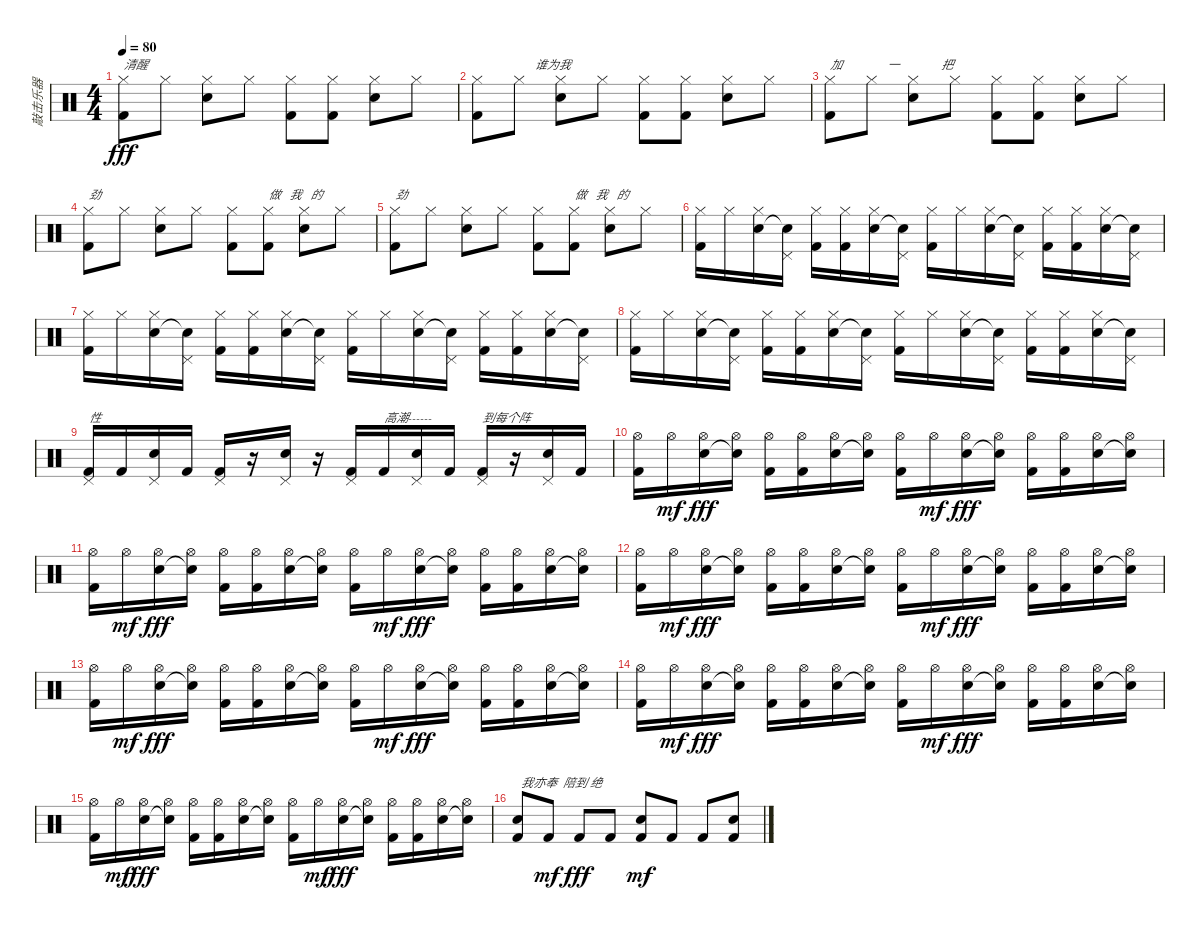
\track ("敲击乐器" "敲击乐器") {instrument percussion}
\staff {score}
\articulation defaults
\ts (4 4)
\tempo 80
\clef neutral
\ks c
("Hi-Hat (closed)" "Kick (hit) 2").8{txt "清醒" dy fff} "Hi-Hat (closed)".8 ("Hi-Hat (closed)" "Electric Snare (hit)").8 "Hi-Hat (closed)".8 ("Hi-Hat (closed)" "Kick (hit) 2").8 ("Hi-Hat (closed)" "Kick (hit) 2").8 ("Hi-Hat (closed)" "Electric Snare (hit)").8 "Hi-Hat (closed)".8 |
("Hi-Hat (closed)" "Kick (hit) 2").8{txt "                   谁为我"} "Hi-Hat (closed)".8 ("Hi-Hat (closed)" "Electric Snare (hit)").8 "Hi-Hat (closed)".8 ("Hi-Hat (closed)" "Kick (hit) 2").8 ("Hi-Hat (closed)" "Kick (hit) 2").8 ("Hi-Hat (closed)" "Electric Snare (hit)").8 "Hi-Hat (closed)".8 |
("Hi-Hat (closed)" "Kick (hit) 2").8{txt "加               一              把    "} "Hi-Hat (closed)".8 ("Hi-Hat (closed)" "Electric Snare (hit)").8 "Hi-Hat (closed)".8 ("Hi-Hat (closed)" "Kick (hit) 2").8 ("Hi-Hat (closed)" "Kick (hit) 2").8 ("Hi-Hat (closed)" "Electric Snare (hit)").8 "Hi-Hat (closed)".8 |
("Hi-Hat (closed)" "Kick (hit) 2").8{txt "劲"} "Hi-Hat (closed)".8 ("Hi-Hat (closed)" "Electric Snare (hit)").8 "Hi-Hat (closed)".8 ("Hi-Hat (closed)" "Kick (hit) 2").8 ("Hi-Hat (closed)" "Kick (hit) 2").8{txt "做   我   的 "} ("Hi-Hat (closed)" "Electric Snare (hit)").8 "Hi-Hat (closed)".8 |
("Hi-Hat (closed)" "Kick (hit) 2").8{txt "劲"} "Hi-Hat (closed)".8 ("Hi-Hat (closed)" "Electric Snare (hit)").8 "Hi-Hat (closed)".8 ("Hi-Hat (closed)" "Kick (hit) 2").8 ("Hi-Hat (closed)" "Kick (hit) 2").8{txt "做   我   的 "} ("Hi-Hat (closed)" "Electric Snare (hit)").8 "Hi-Hat (closed)".8 |
("Hi-Hat (closed)" "Kick (hit) 2").16 "Hi-Hat (closed)".16 ("Hi-Hat (closed)" "Electric Snare (hit)").16 ("Pedal Hi-Hat (hit)" "Snare (hit)"{t}).16 ("Hi-Hat (closed)" "Kick (hit) 2").16 ("Hi-Hat (closed)" "Kick (hit) 2").16 ("Hi-Hat (closed)" "Electric Snare (hit)").16 ("Pedal Hi-Hat (hit)" "Snare (hit)"{t}).16 ("Hi-Hat (closed)" "Kick (hit) 2").16 "Hi-Hat (closed)".16 ("Hi-Hat (closed)" "Electric Snare (hit)").16 ("Pedal Hi-Hat (hit)" "Snare (hit)"{t}).16 ("Hi-Hat (closed)" "Kick (hit) 2").16 ("Hi-Hat (closed)" "Kick (hit) 2").16 ("Hi-Hat (closed)" "Electric Snare (hit)").16 ("Pedal Hi-Hat (hit)" "Snare (hit)"{t}).16 |
("Hi-Hat (closed)" "Kick (hit) 2").16 "Hi-Hat (closed)".16 ("Hi-Hat (closed)" "Electric Snare (hit)").16 ("Pedal Hi-Hat (hit)" "Snare (hit)"{t}).16 ("Hi-Hat (closed)" "Kick (hit) 2").16 ("Hi-Hat (closed)" "Kick (hit) 2").16 ("Hi-Hat (closed)" "Electric Snare (hit)").16 ("Pedal Hi-Hat (hit)" "Snare (hit)"{t}).16 ("Hi-Hat (closed)" "Kick (hit) 2").16 "Hi-Hat (closed)".16 ("Hi-Hat (closed)" "Electric Snare (hit)").16 ("Pedal Hi-Hat (hit)" "Snare (hit)"{t}).16 ("Hi-Hat (closed)" "Kick (hit) 2").16 ("Hi-Hat (closed)" "Kick (hit) 2").16 ("Hi-Hat (closed)" "Electric Snare (hit)").16 ("Pedal Hi-Hat (hit)" "Snare (hit)"{t}).16 |
("Hi-Hat (closed)" "Kick (hit) 2").16 "Hi-Hat (closed)".16 ("Hi-Hat (closed)" "Electric Snare (hit)").16 ("Pedal Hi-Hat (hit)" "Snare (hit)"{t}).16 ("Hi-Hat (closed)" "Kick (hit) 2").16 ("Hi-Hat (closed)" "Kick (hit) 2").16 ("Hi-Hat (closed)" "Electric Snare (hit)").16 ("Pedal Hi-Hat (hit)" "Snare (hit)"{t}).16 ("Hi-Hat (closed)" "Kick (hit) 2").16 "Hi-Hat (closed)".16 ("Hi-Hat (closed)" "Electric Snare (hit)").16 ("Pedal Hi-Hat (hit)" "Snare (hit)"{t}).16 ("Hi-Hat (closed)" "Kick (hit) 2").16 ("Hi-Hat (closed)" "Kick (hit) 2").16 ("Hi-Hat (closed)" "Electric Snare (hit)").16 ("Pedal Hi-Hat (hit)" "Snare (hit)"{t}).16 |
("Pedal Hi-Hat (hit)" "Kick (hit) 2").16{txt "性"} "Kick (hit) 2".16 ("Pedal Hi-Hat (hit)" "Electric Snare (hit)").16 "Kick (hit) 2".16 ("Pedal Hi-Hat (hit)" "Kick (hit) 2").16 r.16 ("Pedal Hi-Hat (hit)" "Electric Snare (hit)").16 r.16 ("Pedal Hi-Hat (hit)" "Kick (hit) 2").16 "Kick (hit) 2".16{txt "高潮------"} ("Pedal Hi-Hat (hit)" "Electric Snare (hit)").16 "Kick (hit) 2".16 ("Pedal Hi-Hat (hit)" "Kick (hit) 2").16{txt "到每个阵"} r.16 ("Pedal Hi-Hat (hit)" "Electric Snare (hit)").16 "Kick (hit) 2".16 |
("Hi-Hat (open)" "Kick (hit) 2").16 "Hi-Hat (open)".16{dy mf} ("Hi-Hat (open)" "Electric Snare (hit)").16{dy fff} ("Hi-Hat (open)" "Snare (hit)"{t}).16 ("Hi-Hat (open)" "Kick (hit) 2").16 ("Hi-Hat (open)" "Kick (hit) 2").16 ("Hi-Hat (open)" "Electric Snare (hit)").16 ("Hi-Hat (open)" "Snare (hit)"{t}).16 ("Hi-Hat (open)" "Kick (hit) 2").16 "Hi-Hat (open)".16{dy mf} ("Hi-Hat (open)" "Electric Snare (hit)").16{dy fff} ("Hi-Hat (open)" "Snare (hit)"{t}).16 ("Hi-Hat (open)" "Kick (hit) 2").16 ("Hi-Hat (open)" "Kick (hit) 2").16 ("Hi-Hat (open)" "Electric Snare (hit)").16 ("Hi-Hat (open)" "Snare (hit)"{t}).16 |
("Hi-Hat (open)" "Kick (hit) 2").16 "Hi-Hat (open)".16{dy mf} ("Hi-Hat (open)" "Electric Snare (hit)").16{dy fff} ("Hi-Hat (open)" "Snare (hit)"{t}).16 ("Hi-Hat (open)" "Kick (hit) 2").16 ("Hi-Hat (open)" "Kick (hit) 2").16 ("Hi-Hat (open)" "Electric Snare (hit)").16 ("Hi-Hat (open)" "Snare (hit)"{t}).16 ("Hi-Hat (open)" "Kick (hit) 2").16 "Hi-Hat (open)".16{dy mf} ("Hi-Hat (open)" "Electric Snare (hit)").16{dy fff} ("Hi-Hat (open)" "Snare (hit)"{t}).16 ("Hi-Hat (open)" "Kick (hit) 2").16 ("Hi-Hat (open)" "Kick (hit) 2").16 ("Hi-Hat (open)" "Electric Snare (hit)").16 ("Hi-Hat (open)" "Snare (hit)"{t}).16 |
("Hi-Hat (open)" "Kick (hit) 2").16 "Hi-Hat (open)".16{dy mf} ("Hi-Hat (open)" "Electric Snare (hit)").16{dy fff} ("Hi-Hat (open)" "Snare (hit)"{t}).16 ("Hi-Hat (open)" "Kick (hit) 2").16 ("Hi-Hat (open)" "Kick (hit) 2").16 ("Hi-Hat (open)" "Electric Snare (hit)").16 ("Hi-Hat (open)" "Snare (hit)"{t}).16 ("Hi-Hat (open)" "Kick (hit) 2").16 "Hi-Hat (open)".16{dy mf} ("Hi-Hat (open)" "Electric Snare (hit)").16{dy fff} ("Hi-Hat (open)" "Snare (hit)"{t}).16 ("Hi-Hat (open)" "Kick (hit) 2").16 ("Hi-Hat (open)" "Kick (hit) 2").16 ("Hi-Hat (open)" "Electric Snare (hit)").16 ("Hi-Hat (open)" "Snare (hit)"{t}).16 |
("Hi-Hat (open)" "Kick (hit) 2").16 "Hi-Hat (open)".16{dy mf} ("Hi-Hat (open)" "Electric Snare (hit)").16{dy fff} ("Hi-Hat (open)" "Snare (hit)"{t}).16 ("Hi-Hat (open)" "Kick (hit) 2").16 ("Hi-Hat (open)" "Kick (hit) 2").16 ("Hi-Hat (open)" "Electric Snare (hit)").16 ("Hi-Hat (open)" "Snare (hit)"{t}).16 ("Hi-Hat (open)" "Kick (hit) 2").16 "Hi-Hat (open)".16{dy mf} ("Hi-Hat (open)" "Electric Snare (hit)").16{dy fff} ("Hi-Hat (open)" "Snare (hit)"{t}).16 ("Hi-Hat (open)" "Kick (hit) 2").16 ("Hi-Hat (open)" "Kick (hit) 2").16 ("Hi-Hat (open)" "Electric Snare (hit)").16 ("Hi-Hat (open)" "Snare (hit)"{t}).16 |
("Hi-Hat (open)" "Kick (hit) 2").16 "Hi-Hat (open)".16{dy mf} ("Hi-Hat (open)" "Electric Snare (hit)").16{dy fff} ("Hi-Hat (open)" "Snare (hit)"{t}).16 ("Hi-Hat (open)" "Kick (hit) 2").16 ("Hi-Hat (open)" "Kick (hit) 2").16 ("Hi-Hat (open)" "Electric Snare (hit)").16 ("Hi-Hat (open)" "Snare (hit)"{t}).16 ("Hi-Hat (open)" "Kick (hit) 2").16 "Hi-Hat (open)".16{dy mf} ("Hi-Hat (open)" "Electric Snare (hit)").16{dy fff} ("Hi-Hat (open)" "Snare (hit)"{t}).16 ("Hi-Hat (open)" "Kick (hit) 2").16 ("Hi-Hat (open)" "Kick (hit) 2").16 ("Hi-Hat (open)" "Electric Snare (hit)").16 ("Hi-Hat (open)" "Snare (hit)"{t}).16 |
("Hi-Hat (open)" "Kick (hit) 2").16 "Hi-Hat (open)".16{dy mf} ("Hi-Hat (open)" "Electric Snare (hit)").16{dy fff} ("Hi-Hat (open)" "Snare (hit)"{t}).16 ("Hi-Hat (open)" "Kick (hit) 2").16 ("Hi-Hat (open)" "Kick (hit) 2").16 ("Hi-Hat (open)" "Electric Snare (hit)").16 ("Hi-Hat (open)" "Snare (hit)"{t}).16 ("Hi-Hat (open)" "Kick (hit) 2").16 "Hi-Hat (open)".16{dy mf} ("Hi-Hat (open)" "Electric Snare (hit)").16{dy fff} ("Hi-Hat (open)" "Snare (hit)"{t}).16 ("Hi-Hat (open)" "Kick (hit) 2").16 ("Hi-Hat (open)" "Kick (hit) 2").16 ("Hi-Hat (open)" "Electric Snare (hit)").16 ("Hi-Hat (open)" "Snare (hit)"{t}).16 |
("Electric Snare (hit)" "Kick (hit) 2").8{txt " 我亦奉  陪到 绝"} "Kick (hit) 2".8{dy mf} "Kick (hit) 2".8{dy fff} "Kick (hit) 2".8 ("Electric Snare (hit)" "Kick (hit) 2").8{dy mf} "Kick (hit) 2".8 "Kick (hit) 2".8 ("Electric Snare (hit)" "Kick (hit) 2").8
